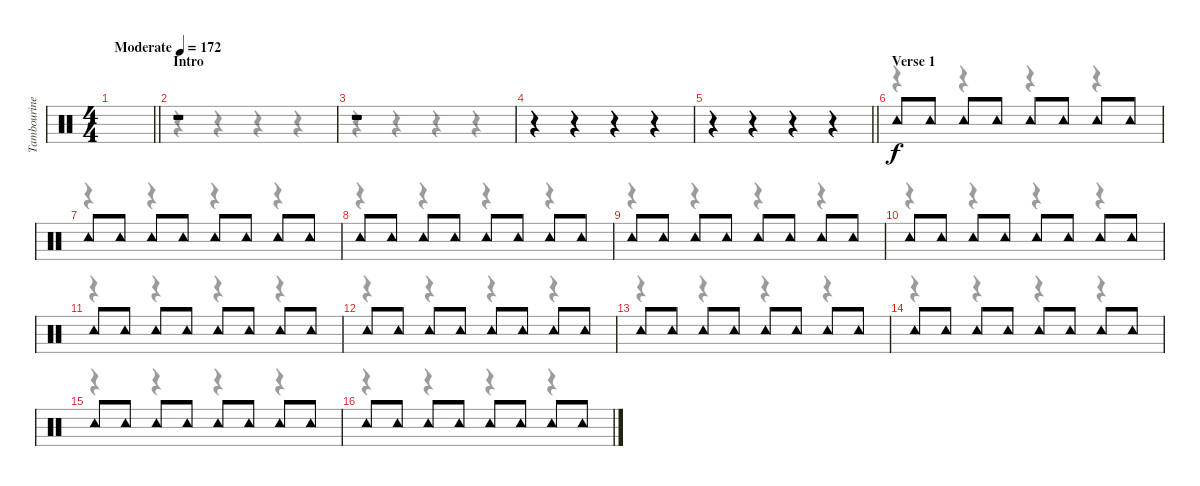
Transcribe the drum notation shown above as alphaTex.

\track ("Tambourine" "Tambourine") {instrument percussion}
\staff {score}
\articulation defaults
\voice
\ts (4 4)
\tempo (172 "Moderate")
\clef neutral
\barLineRight lightlight
\ks c
|
\section ("" "Intro")
r.1 |
r.1 |
r.4 r.4 r.4 r.4 |
\barLineRight lightlight
r.4 r.4 r.4 r.4 |
\section ("" "Verse 1")
"Tambourine (hit)".8 "Tambourine (hit)".8 "Tambourine (hit)".8 "Tambourine (hit)".8 "Tambourine (hit)".8 "Tambourine (hit)".8 "Tambourine (hit)".8 "Tambourine (hit)".8 |
"Tambourine (hit)".8 "Tambourine (hit)".8 "Tambourine (hit)".8 "Tambourine (hit)".8 "Tambourine (hit)".8 "Tambourine (hit)".8 "Tambourine (hit)".8 "Tambourine (hit)".8 |
"Tambourine (hit)".8 "Tambourine (hit)".8 "Tambourine (hit)".8 "Tambourine (hit)".8 "Tambourine (hit)".8 "Tambourine (hit)".8 "Tambourine (hit)".8 "Tambourine (hit)".8 |
"Tambourine (hit)".8 "Tambourine (hit)".8 "Tambourine (hit)".8 "Tambourine (hit)".8 "Tambourine (hit)".8 "Tambourine (hit)".8 "Tambourine (hit)".8 "Tambourine (hit)".8 |
"Tambourine (hit)".8 "Tambourine (hit)".8 "Tambourine (hit)".8 "Tambourine (hit)".8 "Tambourine (hit)".8 "Tambourine (hit)".8 "Tambourine (hit)".8 "Tambourine (hit)".8 |
"Tambourine (hit)".8 "Tambourine (hit)".8 "Tambourine (hit)".8 "Tambourine (hit)".8 "Tambourine (hit)".8 "Tambourine (hit)".8 "Tambourine (hit)".8 "Tambourine (hit)".8 |
"Tambourine (hit)".8 "Tambourine (hit)".8 "Tambourine (hit)".8 "Tambourine (hit)".8 "Tambourine (hit)".8 "Tambourine (hit)".8 "Tambourine (hit)".8 "Tambourine (hit)".8 |
"Tambourine (hit)".8 "Tambourine (hit)".8 "Tambourine (hit)".8 "Tambourine (hit)".8 "Tambourine (hit)".8 "Tambourine (hit)".8 "Tambourine (hit)".8 "Tambourine (hit)".8 |
"Tambourine (hit)".8 "Tambourine (hit)".8 "Tambourine (hit)".8 "Tambourine (hit)".8 "Tambourine (hit)".8 "Tambourine (hit)".8 "Tambourine (hit)".8 "Tambourine (hit)".8 |
"Tambourine (hit)".8 "Tambourine (hit)".8 "Tambourine (hit)".8 "Tambourine (hit)".8 "Tambourine (hit)".8 "Tambourine (hit)".8 "Tambourine (hit)".8 "Tambourine (hit)".8 |
"Tambourine (hit)".8 "Tambourine (hit)".8 "Tambourine (hit)".8 "Tambourine (hit)".8 "Tambourine (hit)".8 "Tambourine (hit)".8 "Tambourine (hit)".8 "Tambourine (hit)".8
\voice
\clef neutral
\ottava regular
\simile none
\barLineRight lightlight
\ks c
|
r.4 r.4 r.4 r.4 |
r.4 r.4 r.4 r.4 |
r.4 r.4 r.4 r.4 |
\barLineRight lightlight
r.4 r.4 r.4 r.4 |
r.4 r.4 r.4 r.4 |
r.4 r.4 r.4 r.4 |
r.4 r.4 r.4 r.4 |
r.4 r.4 r.4 r.4 |
r.4 r.4 r.4 r.4 |
r.4 r.4 r.4 r.4 |
r.4 r.4 r.4 r.4 |
r.4 r.4 r.4 r.4 |
r.4 r.4 r.4 r.4 |
r.4 r.4 r.4 r.4 |
r.4 r.4 r.4 r.4
